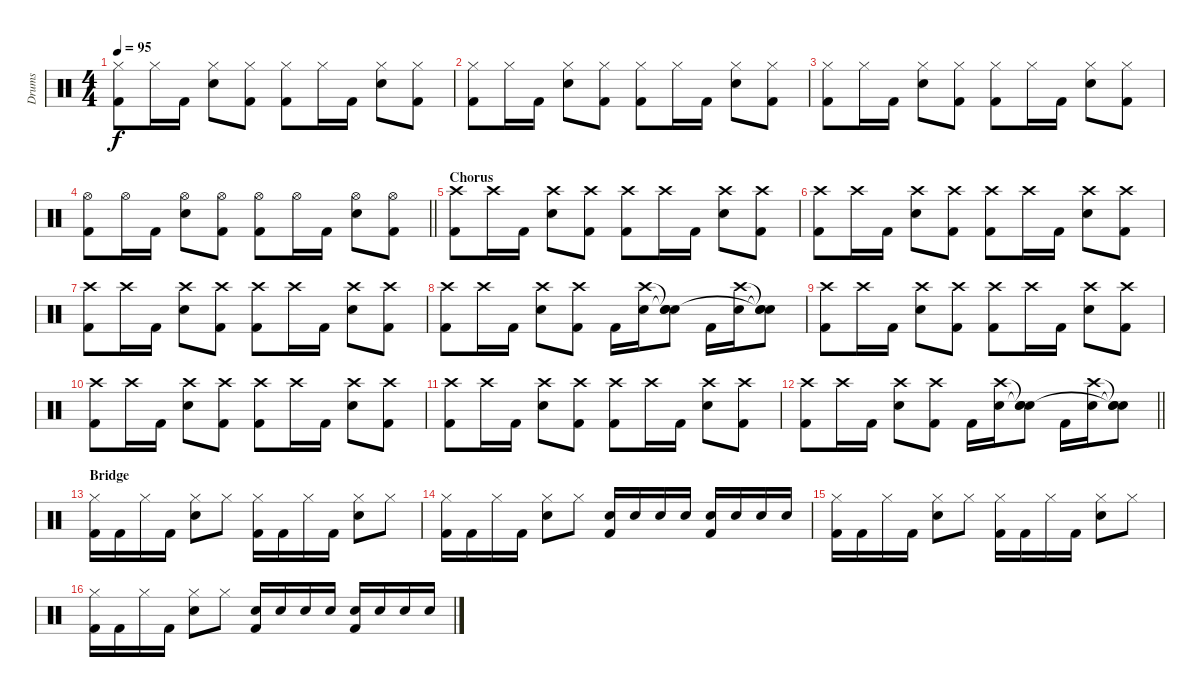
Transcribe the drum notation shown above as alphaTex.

\track ("Drums" "Drums") {instrument percussion}
\staff {score}
\articulation defaults
\ts (4 4)
\tempo 95
\clef neutral
\ks c
("Hi-Hat (closed)" "Kick (hit) 2").8{dy f} "Hi-Hat (closed)".16 "Kick (hit) 2".16 ("Hi-Hat (closed)" "Snare (hit) 2").8 ("Hi-Hat (closed)" "Kick (hit) 2").8 ("Hi-Hat (closed)" "Kick (hit) 2").8 "Hi-Hat (closed)".16 "Kick (hit) 2".16 ("Hi-Hat (closed)" "Snare (hit) 2").8 ("Hi-Hat (closed)" "Kick (hit) 2").8 |
("Hi-Hat (closed)" "Kick (hit) 2").8 "Hi-Hat (closed)".16 "Kick (hit) 2".16 ("Hi-Hat (closed)" "Snare (hit) 2").8 ("Hi-Hat (closed)" "Kick (hit) 2").8 ("Hi-Hat (closed)" "Kick (hit) 2").8 "Hi-Hat (closed)".16 "Kick (hit) 2".16 ("Hi-Hat (closed)" "Snare (hit) 2").8 ("Hi-Hat (closed)" "Kick (hit) 2").8 |
("Hi-Hat (closed)" "Kick (hit) 2").8 "Hi-Hat (closed)".16 "Kick (hit) 2".16 ("Hi-Hat (closed)" "Snare (hit) 2").8 ("Hi-Hat (closed)" "Kick (hit) 2").8 ("Hi-Hat (closed)" "Kick (hit) 2").8 "Hi-Hat (closed)".16 "Kick (hit) 2".16 ("Hi-Hat (closed)" "Snare (hit) 2").8 ("Hi-Hat (closed)" "Kick (hit) 2").8 |
\barLineRight lightlight
("Hi-Hat (open)" "Kick (hit) 2").8 "Hi-Hat (open)".16 "Kick (hit) 2".16 ("Hi-Hat (open)" "Snare (hit) 2").8 ("Hi-Hat (open)" "Kick (hit) 2").8 ("Hi-Hat (open)" "Kick (hit) 2").8 "Hi-Hat (open)".16 "Kick (hit) 2".16 ("Hi-Hat (open)" "Snare (hit) 2").8 ("Hi-Hat (open)" "Kick (hit) 2").8 |
\section ("" "Chorus")
("Crash high (hit)" "Kick (hit) 2").8 "Crash high (hit)".16 "Kick (hit) 2".16 ("Crash high (hit)" "Snare (hit) 2").8 ("Crash high (hit)" "Kick (hit) 2").8 ("Crash high (hit)" "Kick (hit) 2").8 "Crash high (hit)".16 "Kick (hit) 2".16 ("Crash high (hit)" "Snare (hit) 2").8 ("Crash high (hit)" "Kick (hit) 2").8 |
("Crash high (hit)" "Kick (hit) 2").8 "Crash high (hit)".16 "Kick (hit) 2".16 ("Crash high (hit)" "Snare (hit) 2").8 ("Crash high (hit)" "Kick (hit) 2").8 ("Crash high (hit)" "Kick (hit) 2").8 "Crash high (hit)".16 "Kick (hit) 2".16 ("Crash high (hit)" "Snare (hit) 2").8 ("Crash high (hit)" "Kick (hit) 2").8 |
("Crash high (hit)" "Kick (hit) 2").8 "Crash high (hit)".16 "Kick (hit) 2".16 ("Crash high (hit)" "Snare (hit) 2").8 ("Crash high (hit)" "Kick (hit) 2").8 ("Crash high (hit)" "Kick (hit) 2").8 "Crash high (hit)".16 "Kick (hit) 2".16 ("Crash high (hit)" "Snare (hit) 2").8 ("Crash high (hit)" "Kick (hit) 2").8 |
("Crash high (hit)" "Kick (hit) 2").8 "Crash high (hit)".16 "Kick (hit) 2".16 ("Crash high (hit)" "Snare (hit) 2").8 ("Crash high (hit)" "Kick (hit) 2").8 "Kick (hit) 2".16 ("Crash high (hit)" "Snare (hit) 2").16 ("Snare (hit)"{t} "Snare (hit)"{t} "Snare (hit)").8 "Kick (hit) 2".16 ("Crash high (hit)" "Snare (hit) 2").16 ("Snare (hit)"{t} "Snare (hit)"{t} "Snare (hit)"{t}).8 |
("Crash high (hit)" "Kick (hit) 2").8 "Crash high (hit)".16 "Kick (hit) 2".16 ("Crash high (hit)" "Snare (hit) 2").8 ("Crash high (hit)" "Kick (hit) 2").8 ("Crash high (hit)" "Kick (hit) 2").8 "Crash high (hit)".16 "Kick (hit) 2".16 ("Crash high (hit)" "Snare (hit) 2").8 ("Crash high (hit)" "Kick (hit) 2").8 |
("Crash high (hit)" "Kick (hit) 2").8 "Crash high (hit)".16 "Kick (hit) 2".16 ("Crash high (hit)" "Snare (hit) 2").8 ("Crash high (hit)" "Kick (hit) 2").8 ("Crash high (hit)" "Kick (hit) 2").8 "Crash high (hit)".16 "Kick (hit) 2".16 ("Crash high (hit)" "Snare (hit) 2").8 ("Crash high (hit)" "Kick (hit) 2").8 |
("Crash high (hit)" "Kick (hit) 2").8 "Crash high (hit)".16 "Kick (hit) 2".16 ("Crash high (hit)" "Snare (hit) 2").8 ("Crash high (hit)" "Kick (hit) 2").8 ("Crash high (hit)" "Kick (hit) 2").8 "Crash high (hit)".16 "Kick (hit) 2".16 ("Crash high (hit)" "Snare (hit) 2").8 ("Crash high (hit)" "Kick (hit) 2").8 |
\barLineRight lightlight
("Crash high (hit)" "Kick (hit) 2").8 "Crash high (hit)".16 "Kick (hit) 2".16 ("Crash high (hit)" "Snare (hit) 2").8 ("Crash high (hit)" "Kick (hit) 2").8 "Kick (hit) 2".16 ("Crash high (hit)" "Snare (hit) 2").16 ("Snare (hit)"{t} "Snare (hit)"{t} "Snare (hit)").8 "Kick (hit) 2".16 ("Crash high (hit)" "Snare (hit) 2").16 ("Snare (hit)"{t} "Snare (hit)"{t} "Snare (hit)"{t}).8 |
\section ("" "Bridge")
("Hi-Hat (closed)" "Kick (hit) 2").16 "Kick (hit) 2".16 "Hi-Hat (closed)".16 "Kick (hit) 2".16 ("Hi-Hat (closed)" "Snare (hit) 2").8 "Hi-Hat (closed)".8 ("Hi-Hat (closed)" "Kick (hit) 2").16 "Kick (hit) 2".16 "Hi-Hat (closed)".16 "Kick (hit) 2".16 ("Hi-Hat (closed)" "Snare (hit) 2").8 "Hi-Hat (closed)".8 |
("Hi-Hat (closed)" "Kick (hit) 2").16 "Kick (hit) 2".16 "Hi-Hat (closed)".16 "Kick (hit) 2".16 ("Hi-Hat (closed)" "Snare (hit) 2").8 "Hi-Hat (closed)".8 ("Snare (hit) 2" "Kick (hit) 2").16 "Snare (hit) 2".16 "Snare (hit) 2".16 "Snare (hit) 2".16 ("Snare (hit) 2" "Kick (hit) 2").16 "Snare (hit) 2".16 "Snare (hit) 2".16 "Snare (hit) 2".16 |
("Hi-Hat (closed)" "Kick (hit) 2").16 "Kick (hit) 2".16 "Hi-Hat (closed)".16 "Kick (hit) 2".16 ("Hi-Hat (closed)" "Snare (hit) 2").8 "Hi-Hat (closed)".8 ("Hi-Hat (closed)" "Kick (hit) 2").16 "Kick (hit) 2".16 "Hi-Hat (closed)".16 "Kick (hit) 2".16 ("Hi-Hat (closed)" "Snare (hit) 2").8 "Hi-Hat (closed)".8 |
("Hi-Hat (closed)" "Kick (hit) 2").16 "Kick (hit) 2".16 "Hi-Hat (closed)".16 "Kick (hit) 2".16 ("Hi-Hat (closed)" "Snare (hit) 2").8 "Hi-Hat (closed)".8 ("Snare (hit) 2" "Kick (hit) 2").16 "Snare (hit) 2".16 "Snare (hit) 2".16 "Snare (hit) 2".16 ("Snare (hit) 2" "Kick (hit) 2").16 "Snare (hit) 2".16 "Snare (hit) 2".16 "Snare (hit) 2".16
